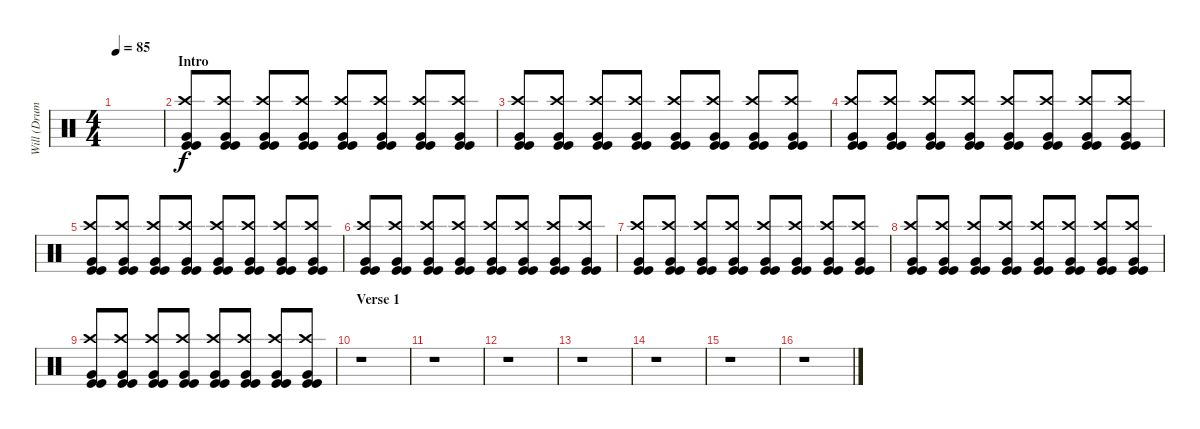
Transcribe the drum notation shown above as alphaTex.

\track ("Will (Drums)" "Will (Drum") {instrument percussion}
\staff {score}
\articulation defaults
\ts (4 4)
\tempo 85
\clef neutral
\ks c
|
\section ("" "Intro")
("Kick (hit)" "Crash high (hit)" "Very Low Tom (hit)" "Kick (hit)").8 ("Kick (hit)" "Crash high (hit)" "Very Low Tom (hit)" "Kick (hit)").8 ("Kick (hit)" "Crash high (hit)" "Very Low Tom (hit)" "Kick (hit)").8 ("Kick (hit)" "Crash high (hit)" "Very Low Tom (hit)" "Kick (hit)").8 ("Kick (hit)" "Crash high (hit)" "Very Low Tom (hit)" "Kick (hit)").8 ("Kick (hit)" "Crash high (hit)" "Very Low Tom (hit)" "Kick (hit)").8 ("Kick (hit)" "Crash high (hit)" "Very Low Tom (hit)" "Kick (hit)").8 ("Kick (hit)" "Crash high (hit)" "Very Low Tom (hit)" "Kick (hit)").8 |
("Kick (hit)" "Crash high (hit)" "Very Low Tom (hit)" "Kick (hit)").8 ("Kick (hit)" "Crash high (hit)" "Very Low Tom (hit)" "Kick (hit)").8 ("Kick (hit)" "Crash high (hit)" "Very Low Tom (hit)" "Kick (hit)").8 ("Kick (hit)" "Crash high (hit)" "Very Low Tom (hit)" "Kick (hit)").8 ("Kick (hit)" "Crash high (hit)" "Very Low Tom (hit)" "Kick (hit)").8 ("Kick (hit)" "Crash high (hit)" "Very Low Tom (hit)" "Kick (hit)").8 ("Kick (hit)" "Crash high (hit)" "Very Low Tom (hit)" "Kick (hit)").8 ("Kick (hit)" "Crash high (hit)" "Very Low Tom (hit)" "Kick (hit)").8 |
("Kick (hit)" "Crash high (hit)" "Very Low Tom (hit)" "Kick (hit)").8 ("Kick (hit)" "Crash high (hit)" "Very Low Tom (hit)" "Kick (hit)").8 ("Kick (hit)" "Crash high (hit)" "Very Low Tom (hit)" "Kick (hit)").8 ("Kick (hit)" "Crash high (hit)" "Very Low Tom (hit)" "Kick (hit)").8 ("Kick (hit)" "Crash high (hit)" "Very Low Tom (hit)" "Kick (hit)").8 ("Kick (hit)" "Crash high (hit)" "Very Low Tom (hit)" "Kick (hit)").8 ("Kick (hit)" "Crash high (hit)" "Very Low Tom (hit)" "Kick (hit)").8 ("Kick (hit)" "Crash high (hit)" "Very Low Tom (hit)" "Kick (hit)").8 |
("Kick (hit)" "Crash high (hit)" "Very Low Tom (hit)" "Kick (hit)").8 ("Kick (hit)" "Crash high (hit)" "Very Low Tom (hit)" "Kick (hit)").8 ("Kick (hit)" "Crash high (hit)" "Very Low Tom (hit)" "Kick (hit)").8 ("Kick (hit)" "Crash high (hit)" "Very Low Tom (hit)" "Kick (hit)").8 ("Kick (hit)" "Crash high (hit)" "Very Low Tom (hit)" "Kick (hit)").8 ("Kick (hit)" "Crash high (hit)" "Very Low Tom (hit)" "Kick (hit)").8 ("Kick (hit)" "Crash high (hit)" "Very Low Tom (hit)" "Kick (hit)").8 ("Kick (hit)" "Crash high (hit)" "Very Low Tom (hit)" "Kick (hit)").8 |
("Kick (hit)" "Crash high (hit)" "Very Low Tom (hit)" "Kick (hit)").8 ("Kick (hit)" "Crash high (hit)" "Very Low Tom (hit)" "Kick (hit)").8 ("Kick (hit)" "Crash high (hit)" "Very Low Tom (hit)" "Kick (hit)").8 ("Kick (hit)" "Crash high (hit)" "Very Low Tom (hit)" "Kick (hit)").8 ("Kick (hit)" "Crash high (hit)" "Very Low Tom (hit)" "Kick (hit)").8 ("Kick (hit)" "Crash high (hit)" "Very Low Tom (hit)" "Kick (hit)").8 ("Kick (hit)" "Crash high (hit)" "Very Low Tom (hit)" "Kick (hit)").8 ("Kick (hit)" "Crash high (hit)" "Very Low Tom (hit)" "Kick (hit)").8 |
("Kick (hit)" "Crash high (hit)" "Very Low Tom (hit)" "Kick (hit)").8 ("Kick (hit)" "Crash high (hit)" "Very Low Tom (hit)" "Kick (hit)").8 ("Kick (hit)" "Crash high (hit)" "Very Low Tom (hit)" "Kick (hit)").8 ("Kick (hit)" "Crash high (hit)" "Very Low Tom (hit)" "Kick (hit)").8 ("Kick (hit)" "Crash high (hit)" "Very Low Tom (hit)" "Kick (hit)").8 ("Kick (hit)" "Crash high (hit)" "Very Low Tom (hit)" "Kick (hit)").8 ("Kick (hit)" "Crash high (hit)" "Very Low Tom (hit)" "Kick (hit)").8 ("Kick (hit)" "Crash high (hit)" "Very Low Tom (hit)" "Kick (hit)").8 |
("Kick (hit)" "Crash high (hit)" "Very Low Tom (hit)" "Kick (hit)").8 ("Kick (hit)" "Crash high (hit)" "Very Low Tom (hit)" "Kick (hit)").8 ("Kick (hit)" "Crash high (hit)" "Very Low Tom (hit)" "Kick (hit)").8 ("Kick (hit)" "Crash high (hit)" "Very Low Tom (hit)" "Kick (hit)").8 ("Kick (hit)" "Crash high (hit)" "Very Low Tom (hit)" "Kick (hit)").8 ("Kick (hit)" "Crash high (hit)" "Very Low Tom (hit)" "Kick (hit)").8 ("Kick (hit)" "Crash high (hit)" "Very Low Tom (hit)" "Kick (hit)").8 ("Kick (hit)" "Crash high (hit)" "Very Low Tom (hit)" "Kick (hit)").8 |
("Kick (hit)" "Crash high (hit)" "Very Low Tom (hit)" "Kick (hit)").8 ("Kick (hit)" "Crash high (hit)" "Very Low Tom (hit)" "Kick (hit)").8 ("Kick (hit)" "Crash high (hit)" "Very Low Tom (hit)" "Kick (hit)").8 ("Kick (hit)" "Crash high (hit)" "Very Low Tom (hit)" "Kick (hit)").8 ("Kick (hit)" "Crash high (hit)" "Very Low Tom (hit)" "Kick (hit)").8 ("Kick (hit)" "Crash high (hit)" "Very Low Tom (hit)" "Kick (hit)").8 ("Kick (hit)" "Crash high (hit)" "Very Low Tom (hit)" "Kick (hit)").8 ("Kick (hit)" "Crash high (hit)" "Very Low Tom (hit)" "Kick (hit)").8 |
\section ("" "Verse 1")
r.1 |
r.1 |
r.1 |
r.1 |
r.1 |
r.1 |
r.1
